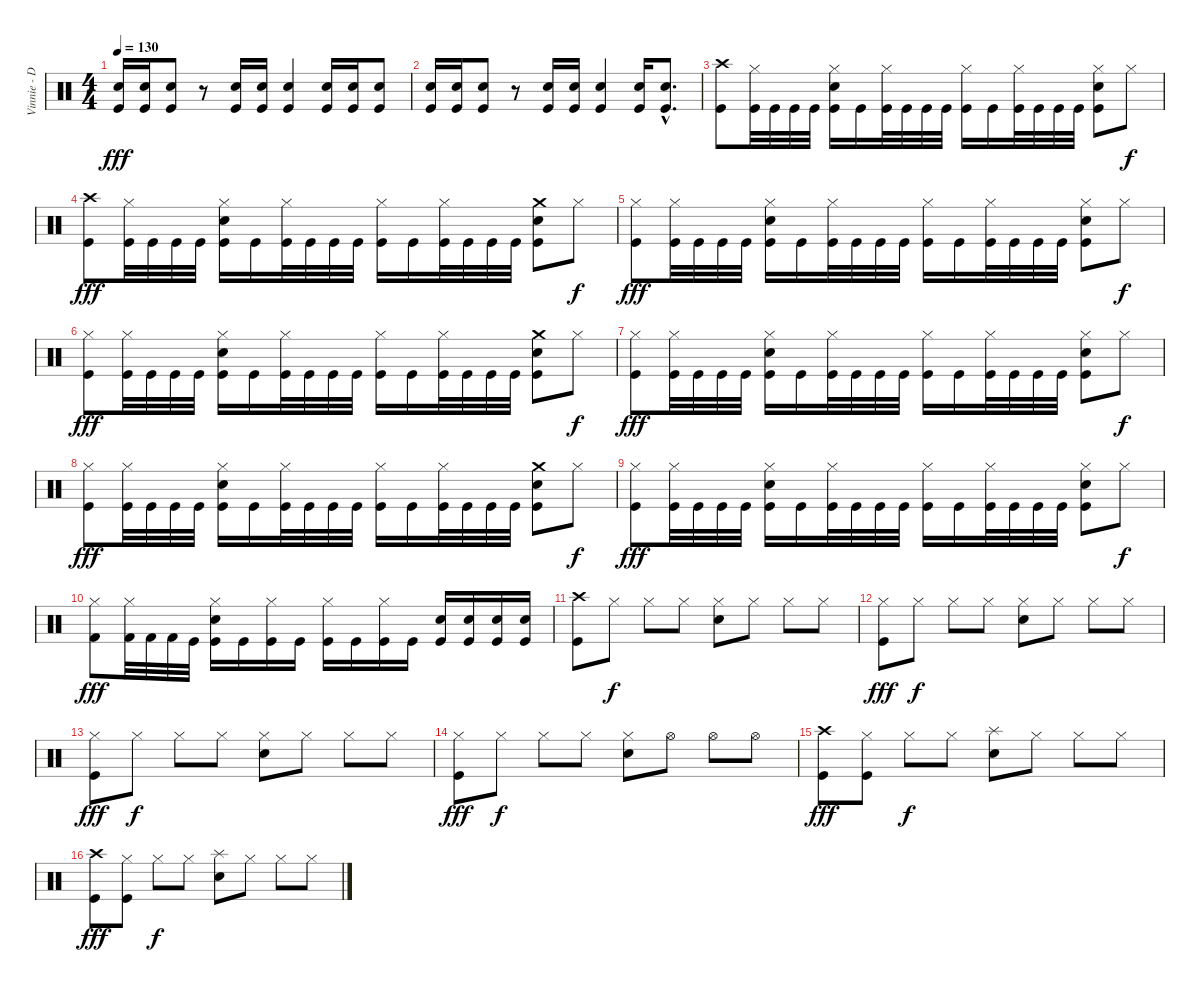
\track ("Vinnie - Drums" "Vinnie - D") {instrument percussion}
\staff {score}
\articulation defaults
\ts (4 4)
\tempo 130
\tempo 128
\tempo 130
\clef neutral
\ks c
("Electric Snare (hit)" "Kick (hit)").16{dy fff} ("Electric Snare (hit)" "Kick (hit)").16 ("Electric Snare (hit)" "Kick (hit)").8 r.8 ("Electric Snare (hit)" "Kick (hit)").16 ("Electric Snare (hit)" "Kick (hit)").16 ("Electric Snare (hit)" "Kick (hit)").4 ("Electric Snare (hit)" "Kick (hit)").16 ("Electric Snare (hit)" "Kick (hit)").16 ("Electric Snare (hit)" "Kick (hit)").8 |
("Electric Snare (hit)" "Kick (hit)").16 ("Electric Snare (hit)" "Kick (hit)").16 ("Electric Snare (hit)" "Kick (hit)").8 r.8 ("Electric Snare (hit)" "Kick (hit)").16 ("Electric Snare (hit)" "Kick (hit)").16 ("Electric Snare (hit)" "Kick (hit)").4 ("Electric Snare (hit)" "Kick (hit)").16 ("Electric Snare (hit)"{hac} "Kick (hit)"{hac}).8{d} |
("Crash high (hit)" "Kick (hit)").8 ("Hi-Hat (closed)" "Kick (hit)").32 "Kick (hit)".32 "Kick (hit)".32 "Kick (hit)".32 ("Hi-Hat (closed)" "Electric Snare (hit)" "Kick (hit)").16 "Kick (hit)".16 ("Hi-Hat (closed)" "Kick (hit)").32 "Kick (hit)".32 "Kick (hit)".32 "Kick (hit)".32 ("Hi-Hat (closed)" "Kick (hit)").16 "Kick (hit)".16 ("Hi-Hat (closed)" "Kick (hit)").32 "Kick (hit)".32 "Kick (hit)".32 "Kick (hit)".32 ("Hi-Hat (closed)" "Electric Snare (hit)" "Kick (hit)").8 "Hi-Hat (closed)".8{dy f} |
("Crash high (hit)" "Kick (hit)").8{dy fff} ("Hi-Hat (closed)" "Kick (hit)").32 "Kick (hit)".32 "Kick (hit)".32 "Kick (hit)".32 ("Hi-Hat (closed)" "Electric Snare (hit)" "Kick (hit)").16 "Kick (hit)".16 ("Hi-Hat (closed)" "Kick (hit)").32 "Kick (hit)".32 "Kick (hit)".32 "Kick (hit)".32 ("Hi-Hat (closed)" "Kick (hit)").16 "Kick (hit)".16 ("Hi-Hat (closed)" "Kick (hit)").32 "Kick (hit)".32 "Kick (hit)".32 "Kick (hit)".32 ("Crash medium (hit)" "Electric Snare (hit)" "Kick (hit)").8 "Hi-Hat (closed)".8{dy f} |
("Hi-Hat (closed)" "Kick (hit)").8{dy fff} ("Hi-Hat (closed)" "Kick (hit)").32 "Kick (hit)".32 "Kick (hit)".32 "Kick (hit)".32 ("Hi-Hat (closed)" "Electric Snare (hit)" "Kick (hit)").16 "Kick (hit)".16 ("Hi-Hat (closed)" "Kick (hit)").32 "Kick (hit)".32 "Kick (hit)".32 "Kick (hit)".32 ("Hi-Hat (closed)" "Kick (hit)").16 "Kick (hit)".16 ("Hi-Hat (closed)" "Kick (hit)").32 "Kick (hit)".32 "Kick (hit)".32 "Kick (hit)".32 ("Hi-Hat (closed)" "Electric Snare (hit)" "Kick (hit)").8 "Hi-Hat (closed)".8{dy f} |
("Hi-Hat (closed)" "Kick (hit)").8{dy fff} ("Hi-Hat (closed)" "Kick (hit)").32 "Kick (hit)".32 "Kick (hit)".32 "Kick (hit)".32 ("Hi-Hat (closed)" "Electric Snare (hit)" "Kick (hit)").16 "Kick (hit)".16 ("Hi-Hat (closed)" "Kick (hit)").32 "Kick (hit)".32 "Kick (hit)".32 "Kick (hit)".32 ("Hi-Hat (closed)" "Kick (hit)").16 "Kick (hit)".16 ("Hi-Hat (closed)" "Kick (hit)").32 "Kick (hit)".32 "Kick (hit)".32 "Kick (hit)".32 ("Crash medium (hit)" "Electric Snare (hit)" "Kick (hit)").8 "Hi-Hat (closed)".8{dy f} |
("Hi-Hat (closed)" "Kick (hit)").8{dy fff} ("Hi-Hat (closed)" "Kick (hit)").32 "Kick (hit)".32 "Kick (hit)".32 "Kick (hit)".32 ("Hi-Hat (closed)" "Electric Snare (hit)" "Kick (hit)").16 "Kick (hit)".16 ("Hi-Hat (closed)" "Kick (hit)").32 "Kick (hit)".32 "Kick (hit)".32 "Kick (hit)".32 ("Hi-Hat (closed)" "Kick (hit)").16 "Kick (hit)".16 ("Hi-Hat (closed)" "Kick (hit)").32 "Kick (hit)".32 "Kick (hit)".32 "Kick (hit)".32 ("Hi-Hat (closed)" "Electric Snare (hit)" "Kick (hit)").8 "Hi-Hat (closed)".8{dy f} |
("Hi-Hat (closed)" "Kick (hit)").8{dy fff} ("Hi-Hat (closed)" "Kick (hit)").32 "Kick (hit)".32 "Kick (hit)".32 "Kick (hit)".32 ("Hi-Hat (closed)" "Electric Snare (hit)" "Kick (hit)").16 "Kick (hit)".16 ("Hi-Hat (closed)" "Kick (hit)").32 "Kick (hit)".32 "Kick (hit)".32 "Kick (hit)".32 ("Hi-Hat (closed)" "Kick (hit)").16 "Kick (hit)".16 ("Hi-Hat (closed)" "Kick (hit)").32 "Kick (hit)".32 "Kick (hit)".32 "Kick (hit)".32 ("Crash medium (hit)" "Electric Snare (hit)" "Kick (hit)").8 "Hi-Hat (closed)".8{dy f} |
("Hi-Hat (closed)" "Kick (hit)").8{dy fff} ("Hi-Hat (closed)" "Kick (hit)").32 "Kick (hit)".32 "Kick (hit)".32 "Kick (hit)".32 ("Hi-Hat (closed)" "Electric Snare (hit)" "Kick (hit)").16 "Kick (hit)".16 ("Hi-Hat (closed)" "Kick (hit)").32 "Kick (hit)".32 "Kick (hit)".32 "Kick (hit)".32 ("Hi-Hat (closed)" "Kick (hit)").16 "Kick (hit)".16 ("Hi-Hat (closed)" "Kick (hit)").32 "Kick (hit)".32 "Kick (hit)".32 "Kick (hit)".32 ("Hi-Hat (closed)" "Electric Snare (hit)" "Kick (hit)").8 "Hi-Hat (closed)".8{dy f} |
("Hi-Hat (closed)" "Kick (hit) 2").8{dy fff} ("Hi-Hat (closed)" "Kick (hit) 2").32 "Kick (hit) 2".32 "Kick (hit) 2".32 "Kick (hit)".32 ("Hi-Hat (closed)" "Electric Snare (hit)" "Kick (hit)").16 "Kick (hit)".16 ("Hi-Hat (closed)" "Kick (hit)").16 "Kick (hit)".16 ("Hi-Hat (closed)" "Kick (hit)").16 "Kick (hit)".16 ("Hi-Hat (closed)" "Kick (hit)").16 "Kick (hit)".16 ("Electric Snare (hit)" "Kick (hit)").16 ("Electric Snare (hit)" "Kick (hit)").16 ("Electric Snare (hit)" "Kick (hit)").16 ("Electric Snare (hit)" "Kick (hit)").16 |
("Crash high (hit)" "Kick (hit)").8 "Hi-Hat (closed)".8{dy f} "Hi-Hat (closed)".8 "Hi-Hat (closed)".8 ("Hi-Hat (closed)" "Electric Snare (hit)").8 "Hi-Hat (closed)".8 "Hi-Hat (closed)".8 "Hi-Hat (closed)".8 |
("Hi-Hat (closed)" "Kick (hit)").8{dy fff} "Hi-Hat (closed)".8{dy f} "Hi-Hat (closed)".8 "Hi-Hat (closed)".8 ("Hi-Hat (closed)" "Electric Snare (hit)").8 "Hi-Hat (closed)".8 "Hi-Hat (closed)".8 "Hi-Hat (closed)".8 |
("Hi-Hat (closed)" "Kick (hit)").8{dy fff} "Hi-Hat (closed)".8{dy f} "Hi-Hat (closed)".8 "Hi-Hat (closed)".8 ("Hi-Hat (closed)" "Electric Snare (hit)").8 "Hi-Hat (closed)".8 "Hi-Hat (closed)".8 "Hi-Hat (closed)".8 |
("Hi-Hat (closed)" "Kick (hit)").8{dy fff} "Hi-Hat (closed)".8{dy f} "Hi-Hat (closed)".8 "Hi-Hat (closed)".8 ("Hi-Hat (closed)" "Electric Snare (hit)").8 "Hi-Hat (open)".8 "Hi-Hat (open)".8 "Hi-Hat (open)".8 |
("Crash high (hit)" "Kick (hit)").8{dy fff} ("Hi-Hat (closed)" "Kick (hit)").8 "Hi-Hat (closed)".8{dy f} "Hi-Hat (closed)".8 ("Splash (hit)" "Electric Snare (hit)").8 "Hi-Hat (closed)".8 "Hi-Hat (closed)".8 "Hi-Hat (closed)".8 |
("Crash high (hit)" "Kick (hit)").8{dy fff} ("Hi-Hat (closed)" "Kick (hit)").8 "Hi-Hat (closed)".8{dy f} "Hi-Hat (closed)".8 ("Splash (hit)" "Electric Snare (hit)").8 "Hi-Hat (closed)".8 "Hi-Hat (closed)".8 "Hi-Hat (closed)".8
